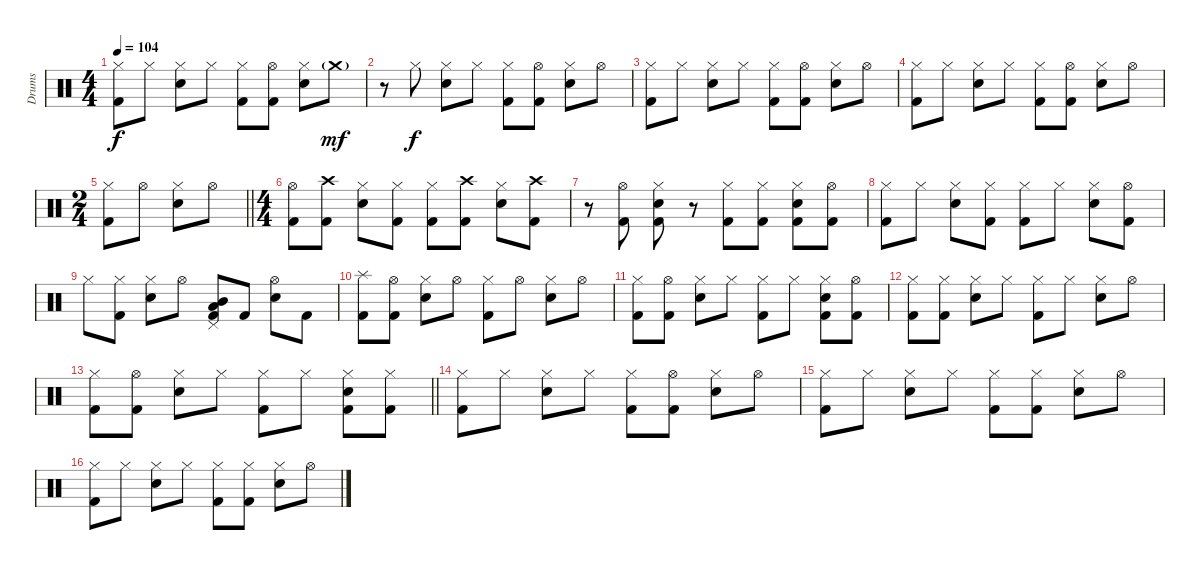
\track ("Drums" "Drums") {instrument percussion}
\staff {score}
\articulation defaults
\ts (4 4)
\tempo 104
\clef neutral
\ks c
("Hi-Hat (closed)" "Kick (hit) 2").8{dy f} "Hi-Hat (closed)".8 ("Hi-Hat (closed)" "Snare (hit) 2").8 "Hi-Hat (closed)".8 ("Hi-Hat (closed)" "Kick (hit) 2").8 ("Hi-Hat (open)" "Kick (hit) 2").8 ("Hi-Hat (closed)" "Snare (hit) 2").8 "Crash medium (hit)"{g}.8{dy mf} |
r.8 "Hi-Hat (closed)".8{dy f} ("Hi-Hat (closed)" "Snare (hit) 2").8 "Hi-Hat (closed)".8 ("Hi-Hat (closed)" "Kick (hit) 2").8 ("Hi-Hat (open)" "Kick (hit) 2").8 ("Hi-Hat (closed)" "Snare (hit) 2").8 "Hi-Hat (open)".8 |
("Hi-Hat (closed)" "Kick (hit) 2").8 "Hi-Hat (closed)".8 ("Hi-Hat (closed)" "Snare (hit) 2").8 "Hi-Hat (closed)".8 ("Hi-Hat (closed)" "Kick (hit) 2").8 ("Hi-Hat (open)" "Kick (hit) 2").8 ("Hi-Hat (closed)" "Snare (hit) 2").8 "Hi-Hat (open)".8 |
("Hi-Hat (closed)" "Kick (hit) 2").8 "Hi-Hat (closed)".8 ("Hi-Hat (closed)" "Snare (hit) 2").8 "Hi-Hat (closed)".8 ("Hi-Hat (closed)" "Kick (hit) 2").8 ("Hi-Hat (open)" "Kick (hit) 2").8 ("Hi-Hat (closed)" "Snare (hit) 2").8 "Hi-Hat (open)".8 |
\ts (2 4)
\barLineRight lightlight
("Hi-Hat (closed)" "Kick (hit) 2").8 "Hi-Hat (open)".8 ("Hi-Hat (closed)" "Snare (hit) 2").8 "Hi-Hat (open)".8 |
\ts (4 4)
\section ("" "")
("Hi-Hat (open)" "Kick (hit) 2").8 ("Crash high (hit)" "Kick (hit) 2").8 ("Hi-Hat (closed)" "Snare (hit) 2").8 ("Hi-Hat (closed)" "Kick (hit) 2").8 ("Hi-Hat (closed)" "Kick (hit) 2").8 ("Crash high (hit)" "Kick (hit) 2").8 ("Hi-Hat (closed)" "Snare (hit) 2").8 ("Crash high (hit)" "Kick (hit) 2").8 |
r.8 ("Hi-Hat (open)" "Kick (hit) 2").8 ("Hi-Hat (closed)" "Snare (hit) 2" "Kick (hit) 2").8 r.8 ("Hi-Hat (closed)" "Kick (hit) 2").8 ("Hi-Hat (closed)" "Kick (hit) 2").8 ("Hi-Hat (closed)" "Snare (hit) 2" "Kick (hit) 2").8 ("Hi-Hat (open)" "Kick (hit) 2").8 |
("Hi-Hat (closed)" "Kick (hit) 2").8 "Hi-Hat (closed)".8 ("Hi-Hat (closed)" "Snare (hit) 2").8 ("Hi-Hat (closed)" "Kick (hit) 2").8 ("Hi-Hat (closed)" "Kick (hit) 2").8 "Hi-Hat (closed)".8 ("Hi-Hat (closed)" "Snare (hit) 2").8 ("Hi-Hat (open)" "Kick (hit) 2").8 |
"Hi-Hat (closed)".8 ("Hi-Hat (closed)" "Kick (hit) 2").8 ("Hi-Hat (closed)" "Snare (hit) 2").8 "Hi-Hat (open)".8 ("Pedal Hi-Hat (hit)" "Mid Tom (hit)" "Low Tom (hit)" "Kick (hit) 2").8 "Kick (hit) 2".8 ("Hi-Hat (open)" "Snare (hit) 2").8 "Kick (hit) 2".8 |
("Splash (hit)" "Kick (hit) 2").8 ("Hi-Hat (open)" "Kick (hit) 2").8 ("Hi-Hat (closed)" "Snare (hit) 2").8 "Hi-Hat (open)".8 ("Hi-Hat (closed)" "Kick (hit) 2").8 "Hi-Hat (open)".8 ("Hi-Hat (closed)" "Snare (hit) 2").8 "Hi-Hat (open)".8 |
("Hi-Hat (closed)" "Kick (hit) 2").8 ("Hi-Hat (open)" "Kick (hit) 2").8 ("Hi-Hat (closed)" "Snare (hit) 2").8 "Hi-Hat (closed)".8 ("Hi-Hat (closed)" "Kick (hit) 2").8 "Hi-Hat (closed)".8 ("Hi-Hat (closed)" "Snare (hit) 2" "Kick (hit) 2").8 ("Hi-Hat (open)" "Kick (hit) 2").8 |
("Hi-Hat (closed)" "Kick (hit) 2").8 ("Hi-Hat (closed)" "Kick (hit) 2").8 ("Hi-Hat (closed)" "Snare (hit) 2").8 "Hi-Hat (closed)".8 ("Hi-Hat (closed)" "Kick (hit) 2").8 "Hi-Hat (closed)".8 ("Hi-Hat (closed)" "Snare (hit) 2").8 "Hi-Hat (open)".8 |
\barLineRight lightlight
("Hi-Hat (closed)" "Kick (hit) 2").8 ("Hi-Hat (open)" "Kick (hit) 2").8 ("Hi-Hat (closed)" "Snare (hit) 2").8 "Hi-Hat (closed)".8 ("Hi-Hat (closed)" "Kick (hit) 2").8 "Hi-Hat (closed)".8 ("Hi-Hat (closed)" "Snare (hit) 2" "Kick (hit) 2").8 ("Hi-Hat (closed)" "Kick (hit) 2").8 |
\section ("" "")
("Hi-Hat (closed)" "Kick (hit) 2").8 "Hi-Hat (closed)".8 ("Hi-Hat (closed)" "Snare (hit) 2").8 "Hi-Hat (closed)".8 ("Hi-Hat (closed)" "Kick (hit) 2").8 ("Hi-Hat (open)" "Kick (hit) 2").8 ("Hi-Hat (closed)" "Snare (hit) 2").8 "Hi-Hat (open)".8 |
("Hi-Hat (closed)" "Kick (hit) 2").8 "Hi-Hat (closed)".8 ("Hi-Hat (closed)" "Snare (hit) 2").8 "Hi-Hat (closed)".8 ("Hi-Hat (closed)" "Kick (hit) 2").8 ("Hi-Hat (closed)" "Kick (hit) 2").8 ("Hi-Hat (closed)" "Snare (hit) 2").8 "Hi-Hat (open)".8 |
("Hi-Hat (closed)" "Kick (hit) 2").8 "Hi-Hat (closed)".8 ("Hi-Hat (closed)" "Snare (hit) 2").8 "Hi-Hat (closed)".8 ("Hi-Hat (closed)" "Kick (hit) 2").8 ("Hi-Hat (closed)" "Kick (hit) 2").8 ("Hi-Hat (closed)" "Snare (hit) 2").8 "Hi-Hat (open)".8
